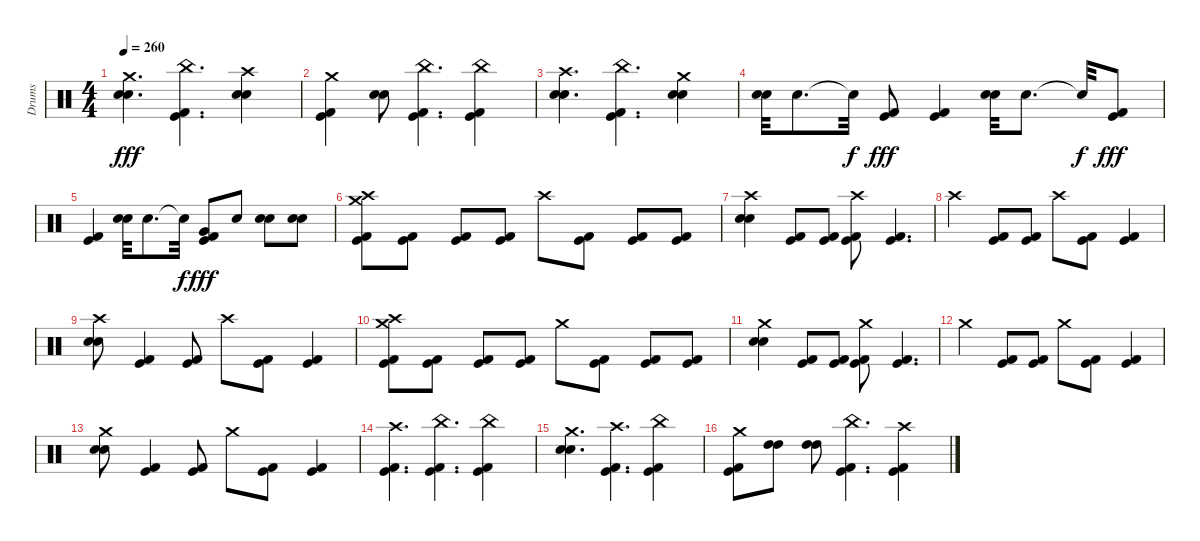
\track ("Drums" "Drums") {instrument percussion}
\staff {score}
\articulation defaults
\ts (4 4)
\tempo 260
\clef neutral
\ks c
("Electric Snare (hit)" "Electric Snare (hit)" "Crash medium (hit)").4{d dy fff} ("Kick (hit)" "Kick (hit) 2" "China (hit)").4{d} ("Electric Snare (hit)" "Electric Snare (hit)" "Crash high (hit)").4 |
("Kick (hit)" "Kick (hit) 2" "Crash medium (hit)").4 ("Electric Snare (hit)" "Electric Snare (hit)").8 ("Kick (hit)" "Kick (hit) 2" "China (hit)").4{d} ("Kick (hit)" "Kick (hit) 2" "China (hit)").4 |
("Electric Snare (hit)" "Electric Snare (hit)" "Crash high (hit)").4{d} ("Kick (hit)" "Kick (hit) 2" "China (hit)").4{d} ("Electric Snare (hit)" "Electric Snare (hit)" "Crash medium (hit)").4 |
("Electric Snare (hit)" "Electric Snare (hit)").32 "Electric Snare (hit)".8{d} "Snare (hit)"{t}.32{dy f} ("Kick (hit)" "Kick (hit) 2").8{dy fff} ("Kick (hit)" "Kick (hit) 2").4 ("Electric Snare (hit)" "Electric Snare (hit)").32 "Electric Snare (hit)".8{d} "Snare (hit)"{t}.32{dy f} ("Kick (hit)" "Kick (hit) 2").8{dy fff} |
("Kick (hit)" "Kick (hit) 2").4 ("Electric Snare (hit)" "Electric Snare (hit)").32 "Electric Snare (hit)".8{d} "Snare (hit)"{t}.32{dy f} ("Kick (hit)" "Kick (hit) 2" "Very Low Tom (hit)").8{dy fff} "Electric Snare (hit)".8 ("Electric Snare (hit)" "Electric Snare (hit)").8 ("Electric Snare (hit)" "Electric Snare (hit)").8 |
("Kick (hit)" "Kick (hit) 2" "Crash medium (hit)" "Crash high (hit)").8 ("Kick (hit)" "Kick (hit) 2").8 ("Kick (hit)" "Kick (hit) 2").8 ("Kick (hit)" "Kick (hit) 2").8 "Crash high (hit)".8 ("Kick (hit)" "Kick (hit) 2").8 ("Kick (hit)" "Kick (hit) 2").8 ("Kick (hit)" "Kick (hit) 2").8 |
("Electric Snare (hit)" "Electric Snare (hit)" "Crash high (hit)").4 ("Kick (hit)" "Kick (hit) 2").8 ("Kick (hit)" "Kick (hit) 2").8 ("Kick (hit)" "Kick (hit) 2" "Crash high (hit)").8 ("Kick (hit)" "Kick (hit) 2").4{d} |
"Crash high (hit)".4 ("Kick (hit)" "Kick (hit) 2").8 ("Kick (hit)" "Kick (hit) 2").8 "Crash high (hit)".8 ("Kick (hit)" "Kick (hit) 2").8 ("Kick (hit)" "Kick (hit) 2").4 |
("Electric Snare (hit)" "Electric Snare (hit)" "Crash high (hit)").8 ("Kick (hit)" "Kick (hit) 2").4 ("Kick (hit)" "Kick (hit) 2").8 "Crash high (hit)".8 ("Kick (hit)" "Kick (hit) 2").8 ("Kick (hit)" "Kick (hit) 2").4 |
("Kick (hit)" "Kick (hit) 2" "Crash medium (hit)" "Crash high (hit)").8 ("Kick (hit)" "Kick (hit) 2").8 ("Kick (hit)" "Kick (hit) 2").8 ("Kick (hit)" "Kick (hit) 2").8 "Crash medium (hit)".8 ("Kick (hit)" "Kick (hit) 2").8 ("Kick (hit)" "Kick (hit) 2").8 ("Kick (hit)" "Kick (hit) 2").8 |
("Electric Snare (hit)" "Electric Snare (hit)" "Crash medium (hit)").4 ("Kick (hit)" "Kick (hit) 2").8 ("Kick (hit)" "Kick (hit) 2").8 ("Kick (hit)" "Kick (hit) 2" "Crash medium (hit)").8 ("Kick (hit)" "Kick (hit) 2").4{d} |
"Crash medium (hit)".4 ("Kick (hit)" "Kick (hit) 2").8 ("Kick (hit)" "Kick (hit) 2").8 "Crash medium (hit)".8 ("Kick (hit)" "Kick (hit) 2").8 ("Kick (hit)" "Kick (hit) 2").4 |
("Electric Snare (hit)" "Electric Snare (hit)" "Crash medium (hit)").8 ("Kick (hit)" "Kick (hit) 2").4 ("Kick (hit)" "Kick (hit) 2").8 "Crash medium (hit)".8 ("Kick (hit)" "Kick (hit) 2").8 ("Kick (hit)" "Kick (hit) 2").4 |
("Kick (hit)" "Kick (hit) 2" "Crash high (hit)").4{d} ("Kick (hit)" "Kick (hit) 2" "China (hit)").4{d} ("Kick (hit)" "Kick (hit) 2" "China (hit)").4 |
("Electric Snare (hit)" "Electric Snare (hit)" "Crash medium (hit)").4{d} ("Kick (hit)" "Kick (hit) 2" "Crash high (hit)").4{d} ("Kick (hit)" "Kick (hit) 2" "China (hit)").4 |
("Kick (hit)" "Kick (hit) 2" "Crash medium (hit)").8 ("High Tom (hit)" "High Tom (hit)").8 ("High Tom (hit)" "High Tom (hit)").8 ("Kick (hit)" "Kick (hit) 2" "China (hit)").4{d} ("Kick (hit)" "Kick (hit) 2" "Crash high (hit)").4
